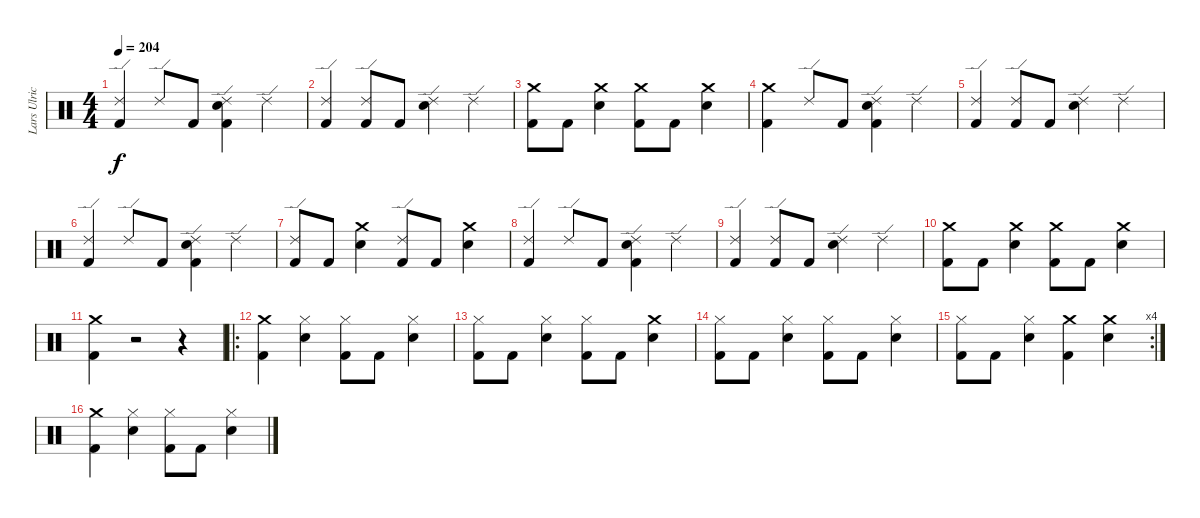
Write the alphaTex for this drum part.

\track ("Lars Ulrich (Drums)" "Lars Ulric") {instrument percussion}
\staff {score}
\articulation defaults
\ts (4 4)
\tempo 204
\clef neutral
\ks c
("Ride (edge) 2" "Kick (hit) 2").4{dy f} "Ride (edge) 2".8 "Kick (hit) 2".8 ("Ride (edge) 2" "Snare (hit) 2" "Kick (hit) 2").4 "Ride (edge) 2".4 |
("Kick (hit) 2" "Ride (edge) 2").4 ("Ride (edge) 2" "Kick (hit) 2").8 "Kick (hit) 2".8 ("Snare (hit) 2" "Ride (edge) 2").4 "Ride (edge) 2".4 |
("Kick (hit) 2" "Crash medium (hit)").8 "Kick (hit) 2".8 ("Snare (hit) 2" "Crash medium (hit)").4 ("Kick (hit) 2" "Crash medium (hit)").8 "Kick (hit) 2".8 ("Snare (hit) 2" "Crash medium (hit)").4 |
("Kick (hit) 2" "Crash medium (hit)").4 "Ride (edge) 2".8 "Kick (hit) 2".8 ("Kick (hit) 2" "Snare (hit) 2" "Ride (edge) 2").4 "Ride (edge) 2".4 |
("Kick (hit) 2" "Ride (edge) 2").4 ("Ride (edge) 2" "Kick (hit) 2").8 "Kick (hit) 2".8 ("Snare (hit) 2" "Ride (edge) 2").4 "Ride (edge) 2".4 |
("Kick (hit) 2" "Ride (edge) 2").4 "Ride (edge) 2".8 "Kick (hit) 2".8 ("Ride (edge) 2" "Snare (hit) 2" "Kick (hit) 2").4 "Ride (edge) 2".4 |
("Ride (edge) 2" "Kick (hit) 2").8 "Kick (hit) 2".8 ("Snare (hit) 2" "Crash medium (hit)").4 ("Ride (edge) 2" "Kick (hit) 2").8 "Kick (hit) 2".8 ("Snare (hit) 2" "Crash medium (hit)").4 |
("Ride (edge) 2" "Kick (hit) 2").4 "Ride (edge) 2".8 "Kick (hit) 2".8 ("Ride (edge) 2" "Snare (hit) 2" "Kick (hit) 2").4 "Ride (edge) 2".4 |
("Kick (hit) 2" "Ride (edge) 2").4 ("Ride (edge) 2" "Kick (hit) 2").8 "Kick (hit) 2".8 ("Snare (hit) 2" "Ride (edge) 2").4 "Ride (edge) 2".4 |
("Kick (hit) 2" "Crash medium (hit)").8 "Kick (hit) 2".8 ("Snare (hit) 2" "Crash medium (hit)").4 ("Kick (hit) 2" "Crash medium (hit)").8 "Kick (hit) 2".8 ("Snare (hit) 2" "Crash medium (hit)").4 |
("Kick (hit) 2" "Crash medium (hit)").4 r.2 r.4 |
\ro
("Kick (hit) 2" "Crash medium (hit)").4 ("Hi-Hat (closed)" "Snare (hit) 2").4 ("Hi-Hat (closed)" "Kick (hit) 2").8 "Kick (hit) 2".8 ("Snare (hit) 2" "Hi-Hat (closed)").4 |
("Hi-Hat (closed)" "Kick (hit) 2").8 "Kick (hit) 2".8 ("Snare (hit) 2" "Hi-Hat (closed)").4 ("Hi-Hat (closed)" "Kick (hit) 2").8 "Kick (hit) 2".8 ("Crash medium (hit)" "Snare (hit) 2").4 |
("Hi-Hat (closed)" "Kick (hit) 2").8 "Kick (hit) 2".8 ("Snare (hit) 2" "Hi-Hat (closed)").4 ("Hi-Hat (closed)" "Kick (hit) 2").8 "Kick (hit) 2".8 ("Snare (hit) 2" "Hi-Hat (closed)").4 |
\rc 4
("Hi-Hat (closed)" "Kick (hit) 2").8 "Kick (hit) 2".8 ("Snare (hit) 2" "Hi-Hat (closed)").4 ("Crash medium (hit)" "Kick (hit) 2").4 ("Crash medium (hit)" "Snare (hit) 2").4 |
("Kick (hit) 2" "Crash medium (hit)").4 ("Hi-Hat (closed)" "Snare (hit) 2").4 ("Hi-Hat (closed)" "Kick (hit) 2").8 "Kick (hit) 2".8 ("Snare (hit) 2" "Hi-Hat (closed)").4
